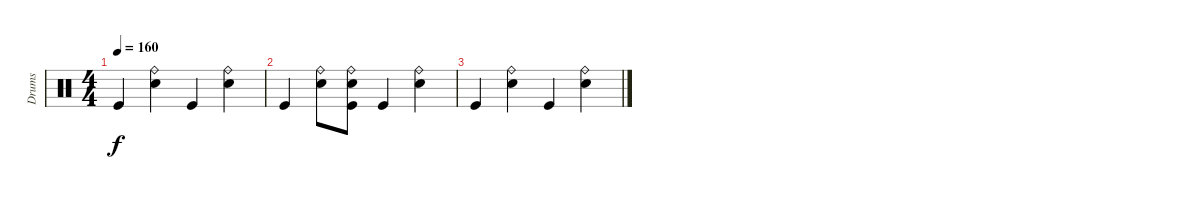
\track ("Drums" "Drums") {instrument percussion}
\staff {score}
\articulation defaults
\ts (4 4)
\tempo 160
\clef neutral
\ks c "Kick (hit)".4{dy f}
("Snare (hit) 2" "Ride (bell)").4 "Kick (hit)".4 ("Snare (hit) 2" "Ride (bell)").4 |
"Kick (hit)".4 ("Snare (hit) 2" "Ride (bell)").8 ("Snare (hit) 2" "Ride (bell)" "Kick (hit)").8 "Kick (hit)".4 ("Snare (hit) 2" "Ride (bell)").4 |
"Kick (hit)".4 ("Snare (hit) 2" "Ride (bell)").4 "Kick (hit)".4 ("Snare (hit) 2" "Ride (bell)").4
